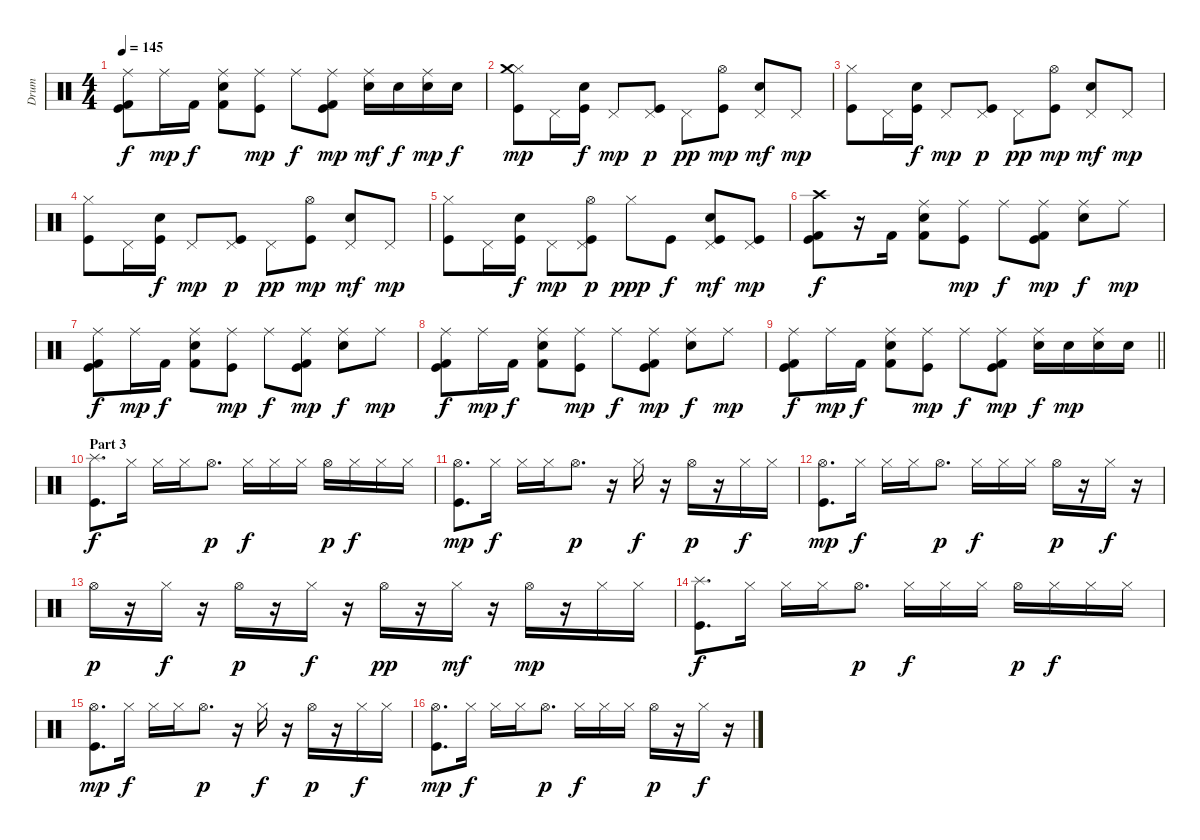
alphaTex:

\track ("Drum" "Drum") {instrument percussion}
\staff {score}
\articulation defaults
\ts (4 4)
\tempo 145
\clef neutral
\ks c
("Ride (middle)" "Kick (hit) 2" "Kick (hit)").8{dy f} "Ride (middle)".16{dy mp} "Kick (hit) 2".16{dy f} ("Ride (middle)" "Electric Snare (hit)" "Kick (hit) 2").8 ("Ride (middle)" "Kick (hit)").8{dy mp} "Ride (middle)".8{dy f} ("Ride (middle)" "Kick (hit) 2" "Kick (hit)").8{dy mp} ("Ride (middle)" "Electric Snare (hit)").16{dy mf} "Electric Snare (hit)".16{dy f} ("Ride (middle)" "Electric Snare (hit)").16{dy mp} "Electric Snare (hit)".16{dy f} |
("Hi-Hat (closed)" "Crash medium (hit)" "Kick (hit)").8{dy mp} "Pedal Hi-Hat (hit)".16 ("Electric Snare (hit)" "Kick (hit)").16{dy f} "Pedal Hi-Hat (hit)".8{dy mp} ("Pedal Hi-Hat (hit)" "Kick (hit)").8{dy p} "Pedal Hi-Hat (hit)".8{dy pp} ("Hi-Hat (open)" "Kick (hit)").8{dy mp} ("Pedal Hi-Hat (hit)" "Electric Snare (hit)").8{dy mf} "Pedal Hi-Hat (hit)".8{dy mp} |
("Hi-Hat (closed)" "Kick (hit)").8 "Pedal Hi-Hat (hit)".16 ("Electric Snare (hit)" "Kick (hit)").16{dy f} "Pedal Hi-Hat (hit)".8{dy mp} ("Pedal Hi-Hat (hit)" "Kick (hit)").8{dy p} "Pedal Hi-Hat (hit)".8{dy pp} ("Hi-Hat (open)" "Kick (hit)").8{dy mp} ("Pedal Hi-Hat (hit)" "Electric Snare (hit)").8{dy mf} "Pedal Hi-Hat (hit)".8{dy mp} |
("Hi-Hat (closed)" "Kick (hit)").8 "Pedal Hi-Hat (hit)".16 ("Electric Snare (hit)" "Kick (hit)").16{dy f} "Pedal Hi-Hat (hit)".8{dy mp} ("Pedal Hi-Hat (hit)" "Kick (hit)").8{dy p} "Pedal Hi-Hat (hit)".8{dy pp} ("Hi-Hat (open)" "Kick (hit)").8{dy mp} ("Pedal Hi-Hat (hit)" "Electric Snare (hit)").8{dy mf} "Pedal Hi-Hat (hit)".8{dy mp} |
("Hi-Hat (closed)" "Kick (hit)").8 "Pedal Hi-Hat (hit)".16 ("Electric Snare (hit)" "Kick (hit)").16{dy f} "Pedal Hi-Hat (hit)".8{dy mp} ("Pedal Hi-Hat (hit)" "Hi-Hat (open)" "Kick (hit)").8{dy p} "Hi-Hat (closed)".8{dy ppp} "Kick (hit)".8{dy f} ("Pedal Hi-Hat (hit)" "Electric Snare (hit)" "Kick (hit)").8{dy mf} ("Pedal Hi-Hat (hit)" "Kick (hit)").8{dy mp} |
("Crash high (hit)" "Kick (hit) 2" "Kick (hit)").8{dy f} r.16 "Kick (hit) 2".16 ("Ride (middle)" "Electric Snare (hit)" "Kick (hit) 2").8 ("Ride (middle)" "Kick (hit)").8{dy mp} "Ride (middle)".8{dy f} ("Ride (middle)" "Kick (hit) 2" "Kick (hit)").8{dy mp} ("Ride (middle)" "Electric Snare (hit)").8{dy f} "Ride (middle)".8{dy mp} |
("Ride (middle)" "Kick (hit) 2" "Kick (hit)").8{dy f} "Ride (middle)".16{dy mp} "Kick (hit) 2".16{dy f} ("Ride (middle)" "Electric Snare (hit)" "Kick (hit) 2").8 ("Ride (middle)" "Kick (hit)").8{dy mp} "Ride (middle)".8{dy f} ("Ride (middle)" "Kick (hit) 2" "Kick (hit)").8{dy mp} ("Ride (middle)" "Electric Snare (hit)").8{dy f} "Ride (middle)".8{dy mp} |
("Ride (middle)" "Kick (hit) 2" "Kick (hit)").8{dy f} "Ride (middle)".16{dy mp} "Kick (hit) 2".16{dy f} ("Ride (middle)" "Electric Snare (hit)" "Kick (hit) 2").8 ("Ride (middle)" "Kick (hit)").8{dy mp} "Ride (middle)".8{dy f} ("Ride (middle)" "Kick (hit) 2" "Kick (hit)").8{dy mp} ("Ride (middle)" "Electric Snare (hit)").8{dy f} "Ride (middle)".8{dy mp} |
\barLineRight lightlight
("Ride (middle)" "Kick (hit) 2" "Kick (hit)").8{dy f} "Ride (middle)".16{dy mp} "Kick (hit) 2".16{dy f} ("Ride (middle)" "Electric Snare (hit)" "Kick (hit) 2").8 ("Ride (middle)" "Kick (hit)").8{dy mp} "Ride (middle)".8{dy f} ("Ride (middle)" "Kick (hit) 2" "Kick (hit)").8{dy mp} ("Ride (middle)" "Electric Snare (hit)").16{dy f} "Electric Snare (hit)".16{dy mp} ("Ride (middle)" "Snare (hit) 2").16 "Snare (hit) 2".16 |
\section ("" "Part 3")
("Splash (hit)" "Kick (hit)").8{d dy f} "Hi-Hat (closed)".16 "Hi-Hat (closed)".16 "Hi-Hat (closed)".16 "Hi-Hat (open)".8{d dy p} "Hi-Hat (closed)".16{dy f} "Hi-Hat (closed)".16 "Hi-Hat (closed)".16 "Hi-Hat (open)".16{dy p} "Hi-Hat (closed)".16{dy f} "Hi-Hat (closed)".16 "Hi-Hat (closed)".16 |
("Hi-Hat (open)" "Kick (hit)").8{d dy mp} "Hi-Hat (closed)".16{dy f} "Hi-Hat (closed)".16 "Hi-Hat (closed)".16 "Hi-Hat (open)".8{d dy p} r.16 "Hi-Hat (closed)".16{dy f} r.16 "Hi-Hat (open)".16{dy p} r.16 "Hi-Hat (closed)".16{dy f} "Hi-Hat (closed)".16 |
("Hi-Hat (open)" "Kick (hit)").8{d dy mp} "Hi-Hat (closed)".16{dy f} "Hi-Hat (closed)".16 "Hi-Hat (closed)".16 "Hi-Hat (open)".8{d dy p} "Hi-Hat (closed)".16{dy f} "Hi-Hat (closed)".16 "Hi-Hat (closed)".16 "Hi-Hat (open)".16{dy p} r.16 "Hi-Hat (closed)".16{dy f} r.16 |
"Hi-Hat (open)".16{dy p} r.16 "Hi-Hat (closed)".16{dy f} r.16 "Hi-Hat (open)".16{dy p} r.16 "Hi-Hat (closed)".16{dy f} r.16 "Hi-Hat (open)".16{dy pp} r.16 "Hi-Hat (closed)".16{dy mf} r.16 "Hi-Hat (open)".16{dy mp} r.16 "Hi-Hat (closed)".16 "Hi-Hat (closed)".16 |
("Splash (hit)" "Kick (hit)").8{d dy f} "Hi-Hat (closed)".16 "Hi-Hat (closed)".16 "Hi-Hat (closed)".16 "Hi-Hat (open)".8{d dy p} "Hi-Hat (closed)".16{dy f} "Hi-Hat (closed)".16 "Hi-Hat (closed)".16 "Hi-Hat (open)".16{dy p} "Hi-Hat (closed)".16{dy f} "Hi-Hat (closed)".16 "Hi-Hat (closed)".16 |
("Hi-Hat (open)" "Kick (hit)").8{d dy mp} "Hi-Hat (closed)".16{dy f} "Hi-Hat (closed)".16 "Hi-Hat (closed)".16 "Hi-Hat (open)".8{d dy p} r.16 "Hi-Hat (closed)".16{dy f} r.16 "Hi-Hat (open)".16{dy p} r.16 "Hi-Hat (closed)".16{dy f} "Hi-Hat (closed)".16 |
("Hi-Hat (open)" "Kick (hit)").8{d dy mp} "Hi-Hat (closed)".16{dy f} "Hi-Hat (closed)".16 "Hi-Hat (closed)".16 "Hi-Hat (open)".8{d dy p} "Hi-Hat (closed)".16{dy f} "Hi-Hat (closed)".16 "Hi-Hat (closed)".16 "Hi-Hat (open)".16{dy p} r.16 "Hi-Hat (closed)".16{dy f} r.16
